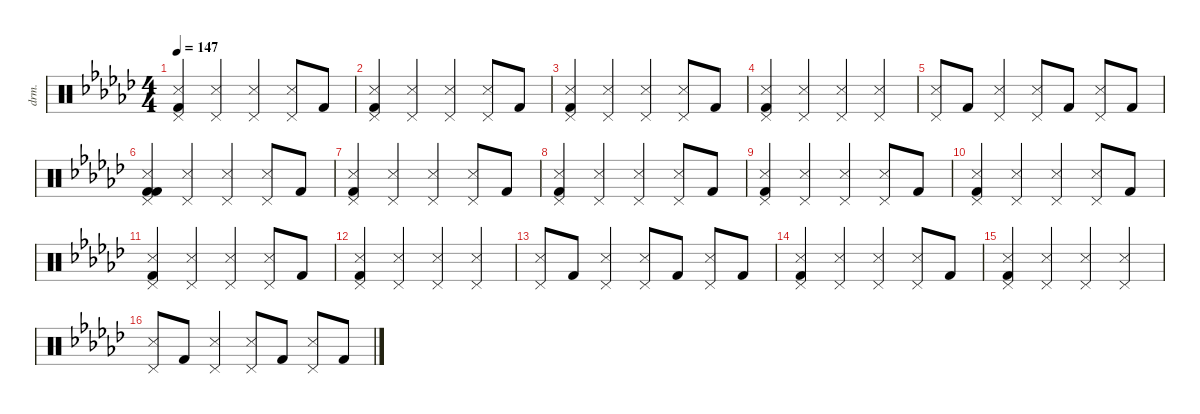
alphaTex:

\defaultSystemsLayout 8
\hideDynamics
\bracketExtendMode nobrackets
\otherSystemsTrackNameOrientation horizontal
\track ("Drums" "drm.") {defaultSystemsLayout 4 instrument percussion}
\staff {score}
\articulation defaults
\ts (4 4)
\tempo 147
\clef neutral
\ks ebminor
("Pedal Hi-Hat (hit)"{acc forcenatural} "Kick (hit) 2"{acc forcenatural} "Snare (side stick) 3"{acc forcenatural}).4{dy f beam Up} ("Pedal Hi-Hat (hit)"{acc forcenatural} "Snare (side stick) 3"{acc forcenatural}).4{beam Up} ("Pedal Hi-Hat (hit)"{acc forcenatural} "Snare (side stick) 3"{acc forcenatural}).4{beam Up} ("Pedal Hi-Hat (hit)"{acc forcenatural} "Snare (side stick) 3"{acc forcenatural}).8{beam Up} "Kick (hit) 2"{acc forcenatural}.8{beam Up} |
("Pedal Hi-Hat (hit)"{acc forcenatural} "Kick (hit) 2"{acc forcenatural} "Snare (side stick) 3"{acc forcenatural}).4{beam Up} ("Pedal Hi-Hat (hit)"{acc forcenatural} "Snare (side stick) 3"{acc forcenatural}).4{beam Up} ("Pedal Hi-Hat (hit)"{acc forcenatural} "Snare (side stick) 3"{acc forcenatural}).4{beam Up} ("Pedal Hi-Hat (hit)"{acc forcenatural} "Snare (side stick) 3"{acc forcenatural}).8{beam Up} "Kick (hit) 2"{acc forcenatural}.8{beam Up} |
("Pedal Hi-Hat (hit)"{acc forcenatural} "Kick (hit) 2"{acc forcenatural} "Snare (side stick) 3"{acc forcenatural}).4{beam Up} ("Pedal Hi-Hat (hit)"{acc forcenatural} "Snare (side stick) 3"{acc forcenatural}).4{beam Up} ("Pedal Hi-Hat (hit)"{acc forcenatural} "Snare (side stick) 3"{acc forcenatural}).4{beam Up} ("Pedal Hi-Hat (hit)"{acc forcenatural} "Snare (side stick) 3"{acc forcenatural}).8{beam Up} "Kick (hit) 2"{acc forcenatural}.8{beam Up} |
("Pedal Hi-Hat (hit)"{acc forcenatural} "Kick (hit) 2"{acc forcenatural} "Snare (side stick) 3"{acc forcenatural}).4{beam Up} ("Pedal Hi-Hat (hit)"{acc forcenatural} "Snare (side stick) 3"{acc forcenatural}).4{beam Up} ("Pedal Hi-Hat (hit)"{acc forcenatural} "Snare (side stick) 3"{acc forcenatural}).4{beam Up} ("Pedal Hi-Hat (hit)"{acc forcenatural} "Snare (side stick) 3"{acc forcenatural}).4{beam Up} |
("Pedal Hi-Hat (hit)"{acc forcenatural} "Snare (side stick) 3"{acc forcenatural}).8{beam Up} "Kick (hit) 2"{acc forcenatural}.8{beam Up} ("Pedal Hi-Hat (hit)"{acc forcenatural} "Snare (side stick) 3"{acc forcenatural}).4{beam Up} ("Pedal Hi-Hat (hit)"{acc forcenatural} "Snare (side stick) 3"{acc forcenatural}).8{beam Up} "Kick (hit) 2"{acc forcenatural}.8{beam Up} ("Pedal Hi-Hat (hit)"{acc forcenatural} "Snare (side stick) 3"{acc forcenatural}).8{beam Up} "Kick (hit) 2"{acc forcenatural}.8{beam Up} |
("Pedal Hi-Hat (hit)"{acc forcenatural} "Kick (hit) 2"{acc forcenatural} "Kick (hit) 2"{acc forcenatural} "Snare (side stick) 3"{acc forcenatural}).4{beam Up} ("Pedal Hi-Hat (hit)"{acc forcenatural} "Snare (side stick) 3"{acc forcenatural}).4{beam Up} ("Pedal Hi-Hat (hit)"{acc forcenatural} "Snare (side stick) 3"{acc forcenatural}).4{beam Up} ("Pedal Hi-Hat (hit)"{acc forcenatural} "Snare (side stick) 3"{acc forcenatural}).8{beam Up} "Kick (hit) 2"{acc forcenatural}.8{beam Up} |
("Pedal Hi-Hat (hit)"{acc forcenatural} "Kick (hit) 2"{acc forcenatural} "Snare (side stick) 3"{acc forcenatural}).4{beam Up} ("Pedal Hi-Hat (hit)"{acc forcenatural} "Snare (side stick) 3"{acc forcenatural}).4{beam Up} ("Pedal Hi-Hat (hit)"{acc forcenatural} "Snare (side stick) 3"{acc forcenatural}).4{beam Up} ("Pedal Hi-Hat (hit)"{acc forcenatural} "Snare (side stick) 3"{acc forcenatural}).8{beam Up} "Kick (hit) 2"{acc forcenatural}.8{beam Up} |
("Pedal Hi-Hat (hit)"{acc forcenatural} "Kick (hit) 2"{acc forcenatural} "Snare (side stick) 3"{acc forcenatural}).4{beam Up} ("Pedal Hi-Hat (hit)"{acc forcenatural} "Snare (side stick) 3"{acc forcenatural}).4{beam Up} ("Pedal Hi-Hat (hit)"{acc forcenatural} "Snare (side stick) 3"{acc forcenatural}).4{beam Up} ("Pedal Hi-Hat (hit)"{acc forcenatural} "Snare (side stick) 3"{acc forcenatural}).8{beam Up} "Kick (hit) 2"{acc forcenatural}.8{beam Up} |
("Pedal Hi-Hat (hit)"{acc forcenatural} "Kick (hit) 2"{acc forcenatural} "Snare (side stick) 3"{acc forcenatural}).4{beam Up} ("Pedal Hi-Hat (hit)"{acc forcenatural} "Snare (side stick) 3"{acc forcenatural}).4{beam Up} ("Pedal Hi-Hat (hit)"{acc forcenatural} "Snare (side stick) 3"{acc forcenatural}).4{beam Up} ("Pedal Hi-Hat (hit)"{acc forcenatural} "Snare (side stick) 3"{acc forcenatural}).8{beam Up} "Kick (hit) 2"{acc forcenatural}.8{beam Up} |
("Pedal Hi-Hat (hit)"{acc forcenatural} "Kick (hit) 2"{acc forcenatural} "Snare (side stick) 3"{acc forcenatural}).4{beam Up} ("Pedal Hi-Hat (hit)"{acc forcenatural} "Snare (side stick) 3"{acc forcenatural}).4{beam Up} ("Pedal Hi-Hat (hit)"{acc forcenatural} "Snare (side stick) 3"{acc forcenatural}).4{beam Up} ("Pedal Hi-Hat (hit)"{acc forcenatural} "Snare (side stick) 3"{acc forcenatural}).8{beam Up} "Kick (hit) 2"{acc forcenatural}.8{beam Up} |
("Pedal Hi-Hat (hit)"{acc forcenatural} "Kick (hit) 2"{acc forcenatural} "Snare (side stick) 3"{acc forcenatural}).4{beam Up} ("Pedal Hi-Hat (hit)"{acc forcenatural} "Snare (side stick) 3"{acc forcenatural}).4{beam Up} ("Pedal Hi-Hat (hit)"{acc forcenatural} "Snare (side stick) 3"{acc forcenatural}).4{beam Up} ("Pedal Hi-Hat (hit)"{acc forcenatural} "Snare (side stick) 3"{acc forcenatural}).8{beam Up} "Kick (hit) 2"{acc forcenatural}.8{beam Up} |
("Pedal Hi-Hat (hit)"{acc forcenatural} "Kick (hit) 2"{acc forcenatural} "Snare (side stick) 3"{acc forcenatural}).4{beam Up} ("Pedal Hi-Hat (hit)"{acc forcenatural} "Snare (side stick) 3"{acc forcenatural}).4{beam Up} ("Pedal Hi-Hat (hit)"{acc forcenatural} "Snare (side stick) 3"{acc forcenatural}).4{beam Up} ("Pedal Hi-Hat (hit)"{acc forcenatural} "Snare (side stick) 3"{acc forcenatural}).4{beam Up} |
("Pedal Hi-Hat (hit)"{acc forcenatural} "Snare (side stick) 3"{acc forcenatural}).8{beam Up} "Kick (hit) 2"{acc forcenatural}.8{beam Up} ("Pedal Hi-Hat (hit)"{acc forcenatural} "Snare (side stick) 3"{acc forcenatural}).4{beam Up} ("Pedal Hi-Hat (hit)"{acc forcenatural} "Snare (side stick) 3"{acc forcenatural}).8{beam Up} "Kick (hit) 2"{acc forcenatural}.8{beam Up} ("Pedal Hi-Hat (hit)"{acc forcenatural} "Snare (side stick) 3"{acc forcenatural}).8{beam Up} "Kick (hit) 2"{acc forcenatural}.8{beam Up} |
("Pedal Hi-Hat (hit)"{acc forcenatural} "Kick (hit) 2"{acc forcenatural} "Snare (side stick) 3"{acc forcenatural}).4{beam Up} ("Pedal Hi-Hat (hit)"{acc forcenatural} "Snare (side stick) 3"{acc forcenatural}).4{beam Up} ("Pedal Hi-Hat (hit)"{acc forcenatural} "Snare (side stick) 3"{acc forcenatural}).4{beam Up} ("Pedal Hi-Hat (hit)"{acc forcenatural} "Snare (side stick) 3"{acc forcenatural}).8{beam Up} "Kick (hit) 2"{acc forcenatural}.8{beam Up} |
("Pedal Hi-Hat (hit)"{acc forcenatural} "Kick (hit) 2"{acc forcenatural} "Snare (side stick) 3"{acc forcenatural}).4{beam Up} ("Pedal Hi-Hat (hit)"{acc forcenatural} "Snare (side stick) 3"{acc forcenatural}).4{beam Up} ("Pedal Hi-Hat (hit)"{acc forcenatural} "Snare (side stick) 3"{acc forcenatural}).4{beam Up} ("Pedal Hi-Hat (hit)"{acc forcenatural} "Snare (side stick) 3"{acc forcenatural}).4{beam Up} |
("Pedal Hi-Hat (hit)"{acc forcenatural} "Snare (side stick) 3"{acc forcenatural}).8{beam Up} "Kick (hit) 2"{acc forcenatural}.8{beam Up} ("Pedal Hi-Hat (hit)"{acc forcenatural} "Snare (side stick) 3"{acc forcenatural}).4{beam Up} ("Pedal Hi-Hat (hit)"{acc forcenatural} "Snare (side stick) 3"{acc forcenatural}).8{beam Up} "Kick (hit) 2"{acc forcenatural}.8{beam Up} ("Pedal Hi-Hat (hit)"{acc forcenatural} "Snare (side stick) 3"{acc forcenatural}).8{beam Up} "Kick (hit) 2"{acc forcenatural}.8{beam Up}
